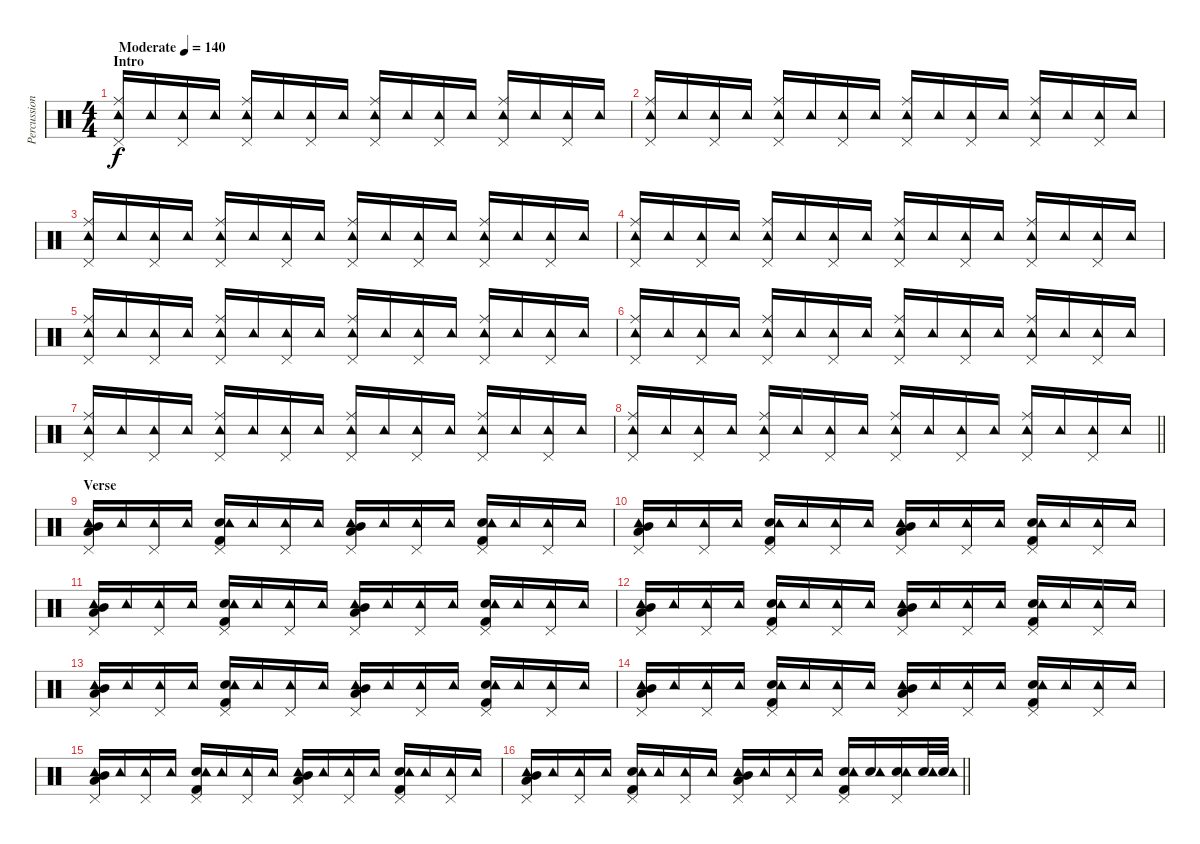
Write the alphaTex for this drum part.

\track ("Percussion" "Percussion") {instrument percussion}
\staff {score}
\articulation defaults
\ts (4 4)
\section ("" "Intro")
\tempo (140 "Moderate")
\clef neutral
\ks c
("Tambourine (hit)" "Ride (middle)" "Pedal Hi-Hat (hit)").16{dy f} "Tambourine (hit)".16 ("Tambourine (hit)" "Pedal Hi-Hat (hit)").16 "Tambourine (hit)".16 ("Tambourine (hit)" "Ride (middle)" "Pedal Hi-Hat (hit)").16 "Tambourine (hit)".16 ("Tambourine (hit)" "Pedal Hi-Hat (hit)").16 "Tambourine (hit)".16 ("Tambourine (hit)" "Ride (middle)" "Pedal Hi-Hat (hit)").16 "Tambourine (hit)".16 ("Tambourine (hit)" "Pedal Hi-Hat (hit)").16 "Tambourine (hit)".16 ("Tambourine (hit)" "Ride (middle)" "Pedal Hi-Hat (hit)").16 "Tambourine (hit)".16 ("Tambourine (hit)" "Pedal Hi-Hat (hit)").16 "Tambourine (hit)".16 |
("Tambourine (hit)" "Ride (middle)" "Pedal Hi-Hat (hit)").16 "Tambourine (hit)".16 ("Tambourine (hit)" "Pedal Hi-Hat (hit)").16 "Tambourine (hit)".16 ("Tambourine (hit)" "Ride (middle)" "Pedal Hi-Hat (hit)").16 "Tambourine (hit)".16 ("Tambourine (hit)" "Pedal Hi-Hat (hit)").16 "Tambourine (hit)".16 ("Tambourine (hit)" "Ride (middle)" "Pedal Hi-Hat (hit)").16 "Tambourine (hit)".16 ("Tambourine (hit)" "Pedal Hi-Hat (hit)").16 "Tambourine (hit)".16 ("Tambourine (hit)" "Ride (middle)" "Pedal Hi-Hat (hit)").16 "Tambourine (hit)".16 ("Tambourine (hit)" "Pedal Hi-Hat (hit)").16 "Tambourine (hit)".16 |
("Tambourine (hit)" "Ride (middle)" "Pedal Hi-Hat (hit)").16 "Tambourine (hit)".16 ("Tambourine (hit)" "Pedal Hi-Hat (hit)").16 "Tambourine (hit)".16 ("Tambourine (hit)" "Ride (middle)" "Pedal Hi-Hat (hit)").16 "Tambourine (hit)".16 ("Tambourine (hit)" "Pedal Hi-Hat (hit)").16 "Tambourine (hit)".16 ("Tambourine (hit)" "Ride (middle)" "Pedal Hi-Hat (hit)").16 "Tambourine (hit)".16 ("Tambourine (hit)" "Pedal Hi-Hat (hit)").16 "Tambourine (hit)".16 ("Tambourine (hit)" "Ride (middle)" "Pedal Hi-Hat (hit)").16 "Tambourine (hit)".16 ("Tambourine (hit)" "Pedal Hi-Hat (hit)").16 "Tambourine (hit)".16 |
("Tambourine (hit)" "Ride (middle)" "Pedal Hi-Hat (hit)").16 "Tambourine (hit)".16 ("Tambourine (hit)" "Pedal Hi-Hat (hit)").16 "Tambourine (hit)".16 ("Tambourine (hit)" "Ride (middle)" "Pedal Hi-Hat (hit)").16 "Tambourine (hit)".16 ("Tambourine (hit)" "Pedal Hi-Hat (hit)").16 "Tambourine (hit)".16 ("Tambourine (hit)" "Ride (middle)" "Pedal Hi-Hat (hit)").16 "Tambourine (hit)".16 ("Tambourine (hit)" "Pedal Hi-Hat (hit)").16 "Tambourine (hit)".16 ("Tambourine (hit)" "Ride (middle)" "Pedal Hi-Hat (hit)").16 "Tambourine (hit)".16 ("Tambourine (hit)" "Pedal Hi-Hat (hit)").16 "Tambourine (hit)".16 |
("Tambourine (hit)" "Ride (middle)" "Pedal Hi-Hat (hit)").16 "Tambourine (hit)".16 ("Tambourine (hit)" "Pedal Hi-Hat (hit)").16 "Tambourine (hit)".16 ("Tambourine (hit)" "Ride (middle)" "Pedal Hi-Hat (hit)").16 "Tambourine (hit)".16 ("Tambourine (hit)" "Pedal Hi-Hat (hit)").16 "Tambourine (hit)".16 ("Tambourine (hit)" "Ride (middle)" "Pedal Hi-Hat (hit)").16 "Tambourine (hit)".16 ("Tambourine (hit)" "Pedal Hi-Hat (hit)").16 "Tambourine (hit)".16 ("Tambourine (hit)" "Ride (middle)" "Pedal Hi-Hat (hit)").16 "Tambourine (hit)".16 ("Tambourine (hit)" "Pedal Hi-Hat (hit)").16 "Tambourine (hit)".16 |
("Tambourine (hit)" "Ride (middle)" "Pedal Hi-Hat (hit)").16 "Tambourine (hit)".16 ("Tambourine (hit)" "Pedal Hi-Hat (hit)").16 "Tambourine (hit)".16 ("Tambourine (hit)" "Ride (middle)" "Pedal Hi-Hat (hit)").16 "Tambourine (hit)".16 ("Tambourine (hit)" "Pedal Hi-Hat (hit)").16 "Tambourine (hit)".16 ("Tambourine (hit)" "Ride (middle)" "Pedal Hi-Hat (hit)").16 "Tambourine (hit)".16 ("Tambourine (hit)" "Pedal Hi-Hat (hit)").16 "Tambourine (hit)".16 ("Tambourine (hit)" "Ride (middle)" "Pedal Hi-Hat (hit)").16 "Tambourine (hit)".16 ("Tambourine (hit)" "Pedal Hi-Hat (hit)").16 "Tambourine (hit)".16 |
("Tambourine (hit)" "Ride (middle)" "Pedal Hi-Hat (hit)").16 "Tambourine (hit)".16 ("Tambourine (hit)" "Pedal Hi-Hat (hit)").16 "Tambourine (hit)".16 ("Tambourine (hit)" "Ride (middle)" "Pedal Hi-Hat (hit)").16 "Tambourine (hit)".16 ("Tambourine (hit)" "Pedal Hi-Hat (hit)").16 "Tambourine (hit)".16 ("Tambourine (hit)" "Ride (middle)" "Pedal Hi-Hat (hit)").16 "Tambourine (hit)".16 ("Tambourine (hit)" "Pedal Hi-Hat (hit)").16 "Tambourine (hit)".16 ("Tambourine (hit)" "Ride (middle)" "Pedal Hi-Hat (hit)").16 "Tambourine (hit)".16 ("Tambourine (hit)" "Pedal Hi-Hat (hit)").16 "Tambourine (hit)".16 |
\barLineRight lightlight
("Tambourine (hit)" "Ride (middle)" "Pedal Hi-Hat (hit)").16 "Tambourine (hit)".16 ("Tambourine (hit)" "Pedal Hi-Hat (hit)").16 "Tambourine (hit)".16 ("Tambourine (hit)" "Ride (middle)" "Pedal Hi-Hat (hit)").16 "Tambourine (hit)".16 ("Tambourine (hit)" "Pedal Hi-Hat (hit)").16 "Tambourine (hit)".16 ("Tambourine (hit)" "Ride (middle)" "Pedal Hi-Hat (hit)").16 "Tambourine (hit)".16 ("Tambourine (hit)" "Pedal Hi-Hat (hit)").16 "Tambourine (hit)".16 ("Tambourine (hit)" "Ride (middle)" "Pedal Hi-Hat (hit)").16 "Tambourine (hit)".16 ("Tambourine (hit)" "Pedal Hi-Hat (hit)").16 "Tambourine (hit)".16 |
\section ("" "Verse")
("Low Tom (hit)" "Mid Tom (hit)" "Pedal Hi-Hat (hit)" "Tambourine (hit)").16{volume 11} "Tambourine (hit)".16 ("Pedal Hi-Hat (hit)" "Tambourine (hit)").16 "Tambourine (hit)".16 ("Snare (hit) 2" "Kick (hit) 2" "Pedal Hi-Hat (hit)" "Tambourine (hit)").16 "Tambourine (hit)".16 ("Pedal Hi-Hat (hit)" "Tambourine (hit)").16 "Tambourine (hit)".16 ("Low Tom (hit)" "Mid Tom (hit)" "Pedal Hi-Hat (hit)" "Tambourine (hit)").16 "Tambourine (hit)".16 ("Pedal Hi-Hat (hit)" "Tambourine (hit)").16 "Tambourine (hit)".16 ("Snare (hit) 2" "Kick (hit) 2" "Pedal Hi-Hat (hit)" "Tambourine (hit)").16 "Tambourine (hit)".16 ("Pedal Hi-Hat (hit)" "Tambourine (hit)").16 "Tambourine (hit)".16 |
("Low Tom (hit)" "Mid Tom (hit)" "Pedal Hi-Hat (hit)" "Tambourine (hit)").16 "Tambourine (hit)".16 ("Pedal Hi-Hat (hit)" "Tambourine (hit)").16 "Tambourine (hit)".16 ("Snare (hit) 2" "Kick (hit) 2" "Pedal Hi-Hat (hit)" "Tambourine (hit)").16 "Tambourine (hit)".16 ("Pedal Hi-Hat (hit)" "Tambourine (hit)").16 "Tambourine (hit)".16 ("Low Tom (hit)" "Mid Tom (hit)" "Pedal Hi-Hat (hit)" "Tambourine (hit)").16 "Tambourine (hit)".16 ("Pedal Hi-Hat (hit)" "Tambourine (hit)").16 "Tambourine (hit)".16 ("Snare (hit) 2" "Kick (hit) 2" "Pedal Hi-Hat (hit)" "Tambourine (hit)").16 "Tambourine (hit)".16 ("Pedal Hi-Hat (hit)" "Tambourine (hit)").16 "Tambourine (hit)".16 |
("Low Tom (hit)" "Mid Tom (hit)" "Pedal Hi-Hat (hit)" "Tambourine (hit)").16 "Tambourine (hit)".16 ("Pedal Hi-Hat (hit)" "Tambourine (hit)").16 "Tambourine (hit)".16 ("Snare (hit) 2" "Kick (hit) 2" "Pedal Hi-Hat (hit)" "Tambourine (hit)").16 "Tambourine (hit)".16 ("Pedal Hi-Hat (hit)" "Tambourine (hit)").16 "Tambourine (hit)".16 ("Low Tom (hit)" "Mid Tom (hit)" "Pedal Hi-Hat (hit)" "Tambourine (hit)").16 "Tambourine (hit)".16 ("Pedal Hi-Hat (hit)" "Tambourine (hit)").16 "Tambourine (hit)".16 ("Snare (hit) 2" "Kick (hit) 2" "Pedal Hi-Hat (hit)" "Tambourine (hit)").16 "Tambourine (hit)".16 ("Pedal Hi-Hat (hit)" "Tambourine (hit)").16 "Tambourine (hit)".16 |
("Low Tom (hit)" "Mid Tom (hit)" "Pedal Hi-Hat (hit)" "Tambourine (hit)").16 "Tambourine (hit)".16 ("Pedal Hi-Hat (hit)" "Tambourine (hit)").16 "Tambourine (hit)".16 ("Snare (hit) 2" "Kick (hit) 2" "Pedal Hi-Hat (hit)" "Tambourine (hit)").16 "Tambourine (hit)".16 ("Pedal Hi-Hat (hit)" "Tambourine (hit)").16 "Tambourine (hit)".16 ("Low Tom (hit)" "Mid Tom (hit)" "Pedal Hi-Hat (hit)" "Tambourine (hit)").16 "Tambourine (hit)".16 ("Pedal Hi-Hat (hit)" "Tambourine (hit)").16 "Tambourine (hit)".16 ("Snare (hit) 2" "Kick (hit) 2" "Pedal Hi-Hat (hit)" "Tambourine (hit)").16 "Tambourine (hit)".16 ("Pedal Hi-Hat (hit)" "Tambourine (hit)").16 "Tambourine (hit)".16 |
("Low Tom (hit)" "Mid Tom (hit)" "Pedal Hi-Hat (hit)" "Tambourine (hit)").16 "Tambourine (hit)".16 ("Pedal Hi-Hat (hit)" "Tambourine (hit)").16 "Tambourine (hit)".16 ("Snare (hit) 2" "Kick (hit) 2" "Pedal Hi-Hat (hit)" "Tambourine (hit)").16 "Tambourine (hit)".16 ("Pedal Hi-Hat (hit)" "Tambourine (hit)").16 "Tambourine (hit)".16 ("Low Tom (hit)" "Mid Tom (hit)" "Pedal Hi-Hat (hit)" "Tambourine (hit)").16 "Tambourine (hit)".16 ("Pedal Hi-Hat (hit)" "Tambourine (hit)").16 "Tambourine (hit)".16 ("Snare (hit) 2" "Kick (hit) 2" "Pedal Hi-Hat (hit)" "Tambourine (hit)").16 "Tambourine (hit)".16 ("Pedal Hi-Hat (hit)" "Tambourine (hit)").16 "Tambourine (hit)".16 |
("Low Tom (hit)" "Mid Tom (hit)" "Pedal Hi-Hat (hit)" "Tambourine (hit)").16 "Tambourine (hit)".16 ("Pedal Hi-Hat (hit)" "Tambourine (hit)").16 "Tambourine (hit)".16 ("Snare (hit) 2" "Kick (hit) 2" "Pedal Hi-Hat (hit)" "Tambourine (hit)").16 "Tambourine (hit)".16 ("Pedal Hi-Hat (hit)" "Tambourine (hit)").16 "Tambourine (hit)".16 ("Low Tom (hit)" "Mid Tom (hit)" "Pedal Hi-Hat (hit)" "Tambourine (hit)").16 "Tambourine (hit)".16 ("Pedal Hi-Hat (hit)" "Tambourine (hit)").16 "Tambourine (hit)".16 ("Snare (hit) 2" "Kick (hit) 2" "Pedal Hi-Hat (hit)" "Tambourine (hit)").16 "Tambourine (hit)".16 ("Pedal Hi-Hat (hit)" "Tambourine (hit)").16 "Tambourine (hit)".16 |
("Low Tom (hit)" "Mid Tom (hit)" "Pedal Hi-Hat (hit)" "Tambourine (hit)").16 "Tambourine (hit)".16 ("Pedal Hi-Hat (hit)" "Tambourine (hit)").16 "Tambourine (hit)".16 ("Snare (hit) 2" "Kick (hit) 2" "Pedal Hi-Hat (hit)" "Tambourine (hit)").16 "Tambourine (hit)".16 ("Pedal Hi-Hat (hit)" "Tambourine (hit)").16 "Tambourine (hit)".16 ("Low Tom (hit)" "Mid Tom (hit)" "Pedal Hi-Hat (hit)" "Tambourine (hit)").16 "Tambourine (hit)".16 ("Pedal Hi-Hat (hit)" "Tambourine (hit)").16 "Tambourine (hit)".16 ("Snare (hit) 2" "Kick (hit) 2" "Pedal Hi-Hat (hit)" "Tambourine (hit)").16 "Tambourine (hit)".16 ("Pedal Hi-Hat (hit)" "Tambourine (hit)").16 "Tambourine (hit)".16 |
\barLineRight lightlight
("Low Tom (hit)" "Mid Tom (hit)" "Pedal Hi-Hat (hit)" "Tambourine (hit)").16 "Tambourine (hit)".16 ("Pedal Hi-Hat (hit)" "Tambourine (hit)").16 "Tambourine (hit)".16 ("Snare (hit) 2" "Kick (hit) 2" "Pedal Hi-Hat (hit)" "Tambourine (hit)").16 "Tambourine (hit)".16 ("Pedal Hi-Hat (hit)" "Tambourine (hit)").16 "Tambourine (hit)".16 ("Low Tom (hit)" "Mid Tom (hit)" "Pedal Hi-Hat (hit)" "Tambourine (hit)").16 "Tambourine (hit)".16 ("Pedal Hi-Hat (hit)" "Tambourine (hit)").16 "Tambourine (hit)".16 ("Snare (hit) 2" "Kick (hit) 2" "Pedal Hi-Hat (hit)" "Tambourine (hit)").16 ("Snare (hit) 2" "Tambourine (hit)").16 ("Snare (hit) 2" "Pedal Hi-Hat (hit)" "Tambourine (hit)").16 ("Snare (hit) 2" "Tambourine (hit)").32 ("Snare (hit) 2" "Tambourine (hit)").32
